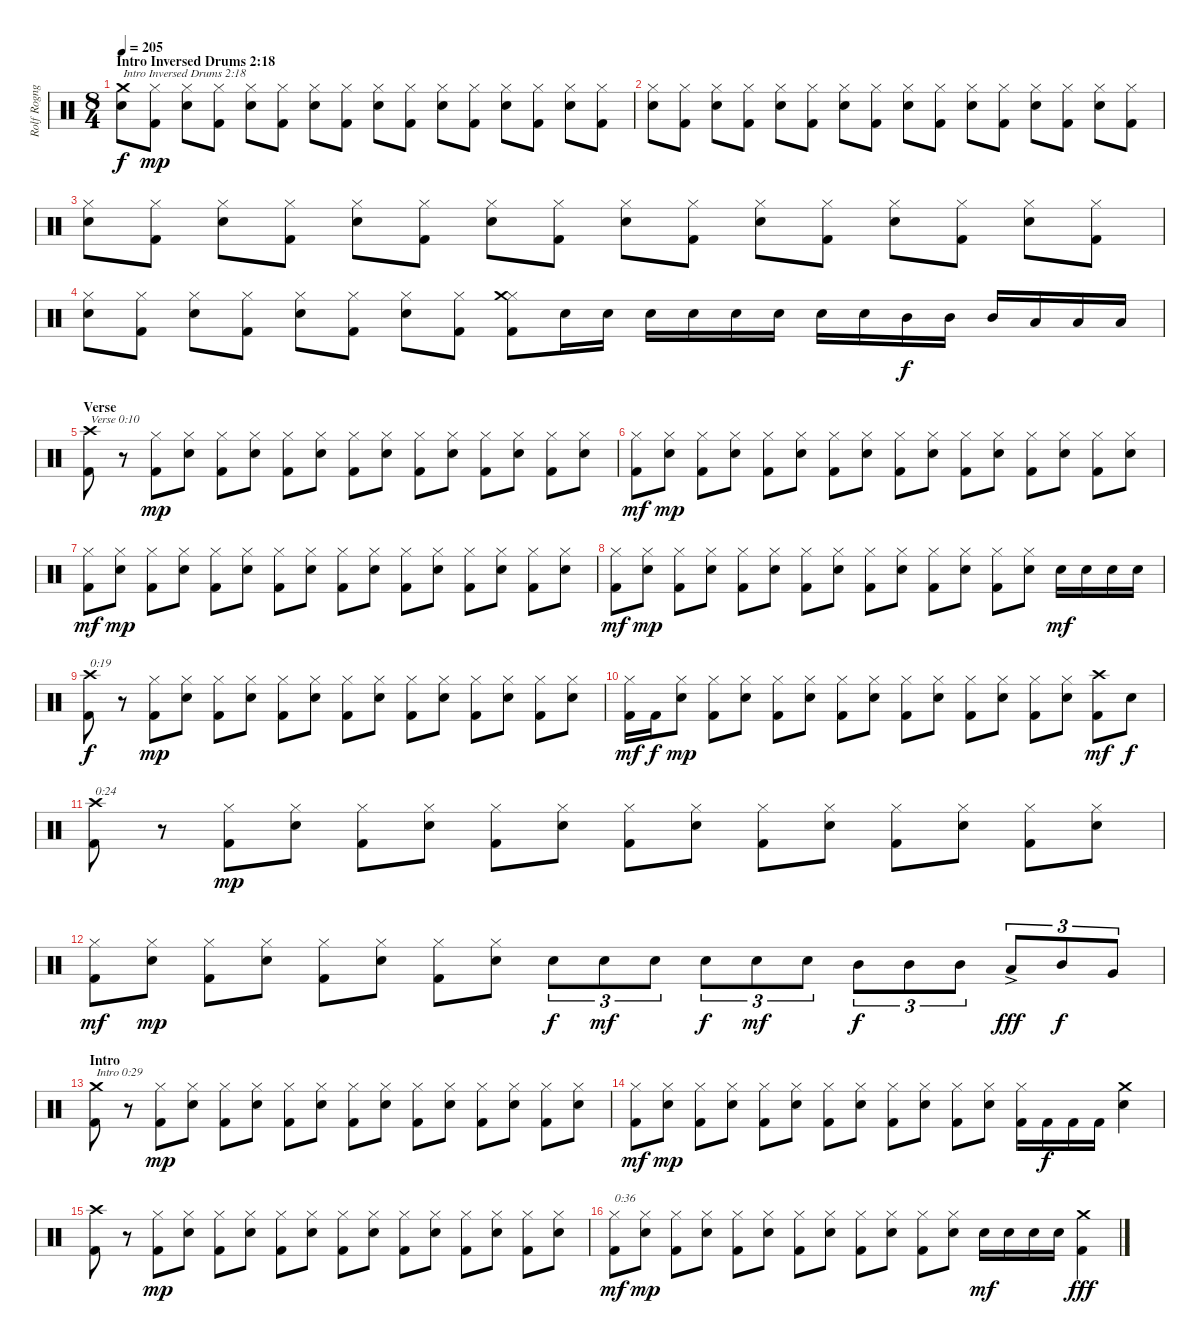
\track ("Rolf Rognguf Hansen" "Rolf Rogng") {instrument percussion}
\staff {score}
\articulation defaults
\ts (8 4)
\section ("" "Intro Inversed Drums 2:18")
\tempo 205
\clef neutral
\ks c
("Electric Snare (hit)" "Crash medium (hit)").8{txt "Intro Inversed Drums 2:18" dy f} ("Kick (hit) 2" "Hi-Hat (closed)").8{dy mp} ("Electric Snare (hit)" "Hi-Hat (closed)").8 ("Kick (hit) 2" "Hi-Hat (closed)").8 ("Electric Snare (hit)" "Hi-Hat (closed)").8 ("Kick (hit) 2" "Hi-Hat (closed)").8 ("Electric Snare (hit)" "Hi-Hat (closed)").8 ("Kick (hit) 2" "Hi-Hat (closed)").8 ("Electric Snare (hit)" "Hi-Hat (closed)").8 ("Kick (hit) 2" "Hi-Hat (closed)").8 ("Electric Snare (hit)" "Hi-Hat (closed)").8 ("Kick (hit) 2" "Hi-Hat (closed)").8 ("Electric Snare (hit)" "Hi-Hat (closed)").8 ("Kick (hit) 2" "Hi-Hat (closed)").8 ("Electric Snare (hit)" "Hi-Hat (closed)").8 ("Kick (hit) 2" "Hi-Hat (closed)").8 |
("Electric Snare (hit)" "Hi-Hat (closed)").8 ("Kick (hit) 2" "Hi-Hat (closed)").8 ("Electric Snare (hit)" "Hi-Hat (closed)").8 ("Kick (hit) 2" "Hi-Hat (closed)").8 ("Electric Snare (hit)" "Hi-Hat (closed)").8 ("Kick (hit) 2" "Hi-Hat (closed)").8 ("Electric Snare (hit)" "Hi-Hat (closed)").8 ("Kick (hit) 2" "Hi-Hat (closed)").8 ("Electric Snare (hit)" "Hi-Hat (closed)").8 ("Kick (hit) 2" "Hi-Hat (closed)").8 ("Electric Snare (hit)" "Hi-Hat (closed)").8 ("Kick (hit) 2" "Hi-Hat (closed)").8 ("Electric Snare (hit)" "Hi-Hat (closed)").8 ("Kick (hit) 2" "Hi-Hat (closed)").8 ("Electric Snare (hit)" "Hi-Hat (closed)").8 ("Kick (hit) 2" "Hi-Hat (closed)").8 |
("Electric Snare (hit)" "Hi-Hat (closed)").8 ("Kick (hit) 2" "Hi-Hat (closed)").8 ("Electric Snare (hit)" "Hi-Hat (closed)").8 ("Kick (hit) 2" "Hi-Hat (closed)").8 ("Electric Snare (hit)" "Hi-Hat (closed)").8 ("Kick (hit) 2" "Hi-Hat (closed)").8 ("Electric Snare (hit)" "Hi-Hat (closed)").8 ("Kick (hit) 2" "Hi-Hat (closed)").8 ("Electric Snare (hit)" "Hi-Hat (closed)").8 ("Kick (hit) 2" "Hi-Hat (closed)").8 ("Electric Snare (hit)" "Hi-Hat (closed)").8 ("Kick (hit) 2" "Hi-Hat (closed)").8 ("Electric Snare (hit)" "Hi-Hat (closed)").8 ("Kick (hit) 2" "Hi-Hat (closed)").8 ("Electric Snare (hit)" "Hi-Hat (closed)").8 ("Kick (hit) 2" "Hi-Hat (closed)").8 |
("Electric Snare (hit)" "Hi-Hat (closed)").8 ("Kick (hit) 2" "Hi-Hat (closed)").8 ("Electric Snare (hit)" "Hi-Hat (closed)").8 ("Kick (hit) 2" "Hi-Hat (closed)").8 ("Electric Snare (hit)" "Hi-Hat (closed)").8 ("Kick (hit) 2" "Hi-Hat (closed)").8 ("Electric Snare (hit)" "Hi-Hat (closed)").8 ("Kick (hit) 2" "Hi-Hat (closed)").8 ("Kick (hit) 2" "Hi-Hat (closed)" "Crash medium (hit)").8 "Electric Snare (hit)".16 "Electric Snare (hit)".16 "Electric Snare (hit)".16 "Electric Snare (hit)".16 "Electric Snare (hit)".16 "Electric Snare (hit)".16 "Electric Snare (hit)".16 "Electric Snare (hit)".16 "Mid Tom (hit)".16{dy f} "Mid Tom (hit)".16 "Mid Tom (hit)".16 "Low Tom (hit)".16 "Low Tom (hit)".16 "Low Tom (hit)".16 |
\section ("" "Verse")
("Kick (hit) 2" "Crash high (hit)").8{txt "Verse 0:10"} r.8 ("Kick (hit) 2" "Hi-Hat (closed)").8{dy mp} ("Electric Snare (hit)" "Hi-Hat (closed)").8 ("Kick (hit) 2" "Hi-Hat (closed)").8 ("Electric Snare (hit)" "Hi-Hat (closed)").8 ("Kick (hit) 2" "Hi-Hat (closed)").8 ("Electric Snare (hit)" "Hi-Hat (closed)").8 ("Kick (hit) 2" "Hi-Hat (closed)").8 ("Electric Snare (hit)" "Hi-Hat (closed)").8 ("Kick (hit) 2" "Hi-Hat (closed)").8 ("Electric Snare (hit)" "Hi-Hat (closed)").8 ("Kick (hit) 2" "Hi-Hat (closed)").8 ("Electric Snare (hit)" "Hi-Hat (closed)").8 ("Kick (hit) 2" "Hi-Hat (closed)").8 ("Electric Snare (hit)" "Hi-Hat (closed)").8 |
("Kick (hit) 2" "Hi-Hat (closed)").8{dy mf} ("Electric Snare (hit)" "Hi-Hat (closed)").8{dy mp} ("Kick (hit) 2" "Hi-Hat (closed)").8 ("Electric Snare (hit)" "Hi-Hat (closed)").8 ("Kick (hit) 2" "Hi-Hat (closed)").8 ("Electric Snare (hit)" "Hi-Hat (closed)").8 ("Kick (hit) 2" "Hi-Hat (closed)").8 ("Electric Snare (hit)" "Hi-Hat (closed)").8 ("Kick (hit) 2" "Hi-Hat (closed)").8 ("Electric Snare (hit)" "Hi-Hat (closed)").8 ("Kick (hit) 2" "Hi-Hat (closed)").8 ("Electric Snare (hit)" "Hi-Hat (closed)").8 ("Kick (hit) 2" "Hi-Hat (closed)").8 ("Electric Snare (hit)" "Hi-Hat (closed)").8 ("Kick (hit) 2" "Hi-Hat (closed)").8 ("Electric Snare (hit)" "Hi-Hat (closed)").8 |
("Kick (hit) 2" "Hi-Hat (closed)").8{dy mf} ("Electric Snare (hit)" "Hi-Hat (closed)").8{dy mp} ("Kick (hit) 2" "Hi-Hat (closed)").8 ("Electric Snare (hit)" "Hi-Hat (closed)").8 ("Kick (hit) 2" "Hi-Hat (closed)").8 ("Electric Snare (hit)" "Hi-Hat (closed)").8 ("Kick (hit) 2" "Hi-Hat (closed)").8 ("Electric Snare (hit)" "Hi-Hat (closed)").8 ("Kick (hit) 2" "Hi-Hat (closed)").8 ("Electric Snare (hit)" "Hi-Hat (closed)").8 ("Kick (hit) 2" "Hi-Hat (closed)").8 ("Electric Snare (hit)" "Hi-Hat (closed)").8 ("Kick (hit) 2" "Hi-Hat (closed)").8 ("Electric Snare (hit)" "Hi-Hat (closed)").8 ("Kick (hit) 2" "Hi-Hat (closed)").8 ("Electric Snare (hit)" "Hi-Hat (closed)").8 |
("Kick (hit) 2" "Hi-Hat (closed)").8{dy mf} ("Electric Snare (hit)" "Hi-Hat (closed)").8{dy mp} ("Kick (hit) 2" "Hi-Hat (closed)").8 ("Electric Snare (hit)" "Hi-Hat (closed)").8 ("Kick (hit) 2" "Hi-Hat (closed)").8 ("Electric Snare (hit)" "Hi-Hat (closed)").8 ("Kick (hit) 2" "Hi-Hat (closed)").8 ("Electric Snare (hit)" "Hi-Hat (closed)").8 ("Kick (hit) 2" "Hi-Hat (closed)").8 ("Electric Snare (hit)" "Hi-Hat (closed)").8 ("Kick (hit) 2" "Hi-Hat (closed)").8 ("Electric Snare (hit)" "Hi-Hat (closed)").8 ("Kick (hit) 2" "Hi-Hat (closed)").8 ("Electric Snare (hit)" "Hi-Hat (closed)").8 "Electric Snare (hit)".16{dy mf} "Electric Snare (hit)".16 "Electric Snare (hit)".16 "Electric Snare (hit)".16 |
("Kick (hit) 2" "Crash high (hit)").8{txt "0:19" dy f} r.8 ("Kick (hit) 2" "Hi-Hat (closed)").8{dy mp} ("Electric Snare (hit)" "Hi-Hat (closed)").8 ("Kick (hit) 2" "Hi-Hat (closed)").8 ("Electric Snare (hit)" "Hi-Hat (closed)").8 ("Kick (hit) 2" "Hi-Hat (closed)").8 ("Electric Snare (hit)" "Hi-Hat (closed)").8 ("Kick (hit) 2" "Hi-Hat (closed)").8 ("Electric Snare (hit)" "Hi-Hat (closed)").8 ("Kick (hit) 2" "Hi-Hat (closed)").8 ("Electric Snare (hit)" "Hi-Hat (closed)").8 ("Kick (hit) 2" "Hi-Hat (closed)").8 ("Electric Snare (hit)" "Hi-Hat (closed)").8 ("Kick (hit) 2" "Hi-Hat (closed)").8 ("Electric Snare (hit)" "Hi-Hat (closed)").8 |
("Kick (hit) 2" "Hi-Hat (closed)").16{dy mf} "Kick (hit) 2".16{dy f} ("Electric Snare (hit)" "Hi-Hat (closed)").8{dy mp} ("Kick (hit) 2" "Hi-Hat (closed)").8 ("Electric Snare (hit)" "Hi-Hat (closed)").8 ("Kick (hit) 2" "Hi-Hat (closed)").8 ("Electric Snare (hit)" "Hi-Hat (closed)").8 ("Kick (hit) 2" "Hi-Hat (closed)").8 ("Electric Snare (hit)" "Hi-Hat (closed)").8 ("Kick (hit) 2" "Hi-Hat (closed)").8 ("Electric Snare (hit)" "Hi-Hat (closed)").8 ("Kick (hit) 2" "Hi-Hat (closed)").8 ("Electric Snare (hit)" "Hi-Hat (closed)").8 ("Kick (hit) 2" "Hi-Hat (closed)").8 ("Electric Snare (hit)" "Hi-Hat (closed)").8 ("Kick (hit) 2" "Crash high (hit)").8{dy mf} "Electric Snare (hit)".8{dy f} |
("Kick (hit) 2" "Crash high (hit)").8{txt "0:24"} r.8 ("Kick (hit) 2" "Hi-Hat (closed)").8{dy mp} ("Electric Snare (hit)" "Hi-Hat (closed)").8 ("Kick (hit) 2" "Hi-Hat (closed)").8 ("Electric Snare (hit)" "Hi-Hat (closed)").8 ("Kick (hit) 2" "Hi-Hat (closed)").8 ("Electric Snare (hit)" "Hi-Hat (closed)").8 ("Kick (hit) 2" "Hi-Hat (closed)").8 ("Electric Snare (hit)" "Hi-Hat (closed)").8 ("Kick (hit) 2" "Hi-Hat (closed)").8 ("Electric Snare (hit)" "Hi-Hat (closed)").8 ("Kick (hit) 2" "Hi-Hat (closed)").8 ("Electric Snare (hit)" "Hi-Hat (closed)").8 ("Kick (hit) 2" "Hi-Hat (closed)").8 ("Electric Snare (hit)" "Hi-Hat (closed)").8 |
("Kick (hit) 2" "Hi-Hat (closed)").8{dy mf} ("Electric Snare (hit)" "Hi-Hat (closed)").8{dy mp} ("Kick (hit) 2" "Hi-Hat (closed)").8 ("Electric Snare (hit)" "Hi-Hat (closed)").8 ("Kick (hit) 2" "Hi-Hat (closed)").8 ("Electric Snare (hit)" "Hi-Hat (closed)").8 ("Kick (hit) 2" "Hi-Hat (closed)").8 ("Electric Snare (hit)" "Hi-Hat (closed)").8 "Electric Snare (hit)".8{tu (3 2) dy f} "Electric Snare (hit)".8{tu (3 2) dy mf} "Electric Snare (hit)".8{tu (3 2)} "Electric Snare (hit)".8{tu (3 2) dy f} "Electric Snare (hit)".8{tu (3 2) dy mf} "Electric Snare (hit)".8{tu (3 2)} "Mid Tom (hit)".8{tu (3 2) dy f} "Mid Tom (hit)".8{tu (3 2)} "Mid Tom (hit)".8{tu (3 2)} "Low Tom (hit)"{ac}.8{tu (3 2) dy fff} "Mid Tom (hit)".8{tu (3 2) dy f} "Very Low Tom (hit)".8{tu (3 2)} |
\section ("" "Intro")
("Kick (hit) 2" "Crash medium (hit)").8{txt "Intro 0:29"} r.8 ("Kick (hit) 2" "Hi-Hat (closed)").8{dy mp} ("Electric Snare (hit)" "Hi-Hat (closed)").8 ("Kick (hit) 2" "Hi-Hat (closed)").8 ("Electric Snare (hit)" "Hi-Hat (closed)").8 ("Kick (hit) 2" "Hi-Hat (closed)").8 ("Electric Snare (hit)" "Hi-Hat (closed)").8 ("Kick (hit) 2" "Hi-Hat (closed)").8 ("Electric Snare (hit)" "Hi-Hat (closed)").8 ("Kick (hit) 2" "Hi-Hat (closed)").8 ("Electric Snare (hit)" "Hi-Hat (closed)").8 ("Kick (hit) 2" "Hi-Hat (closed)").8 ("Electric Snare (hit)" "Hi-Hat (closed)").8 ("Kick (hit) 2" "Hi-Hat (closed)").8 ("Electric Snare (hit)" "Hi-Hat (closed)").8 |
("Kick (hit) 2" "Hi-Hat (closed)").8{dy mf} ("Electric Snare (hit)" "Hi-Hat (closed)").8{dy mp} ("Kick (hit) 2" "Hi-Hat (closed)").8 ("Electric Snare (hit)" "Hi-Hat (closed)").8 ("Kick (hit) 2" "Hi-Hat (closed)").8 ("Electric Snare (hit)" "Hi-Hat (closed)").8 ("Kick (hit) 2" "Hi-Hat (closed)").8 ("Electric Snare (hit)" "Hi-Hat (closed)").8 ("Kick (hit) 2" "Hi-Hat (closed)").8 ("Electric Snare (hit)" "Hi-Hat (closed)").8 ("Kick (hit) 2" "Hi-Hat (closed)").8 ("Electric Snare (hit)" "Hi-Hat (closed)").8 ("Kick (hit) 2" "Hi-Hat (closed)").16 "Kick (hit) 2".16{dy f} "Kick (hit) 2".16 "Kick (hit) 2".16 ("Electric Snare (hit)" "Crash medium (hit)").4 |
("Kick (hit) 2" "Crash high (hit)").8 r.8 ("Kick (hit) 2" "Hi-Hat (closed)").8{dy mp} ("Electric Snare (hit)" "Hi-Hat (closed)").8 ("Kick (hit) 2" "Hi-Hat (closed)").8 ("Electric Snare (hit)" "Hi-Hat (closed)").8 ("Kick (hit) 2" "Hi-Hat (closed)").8 ("Electric Snare (hit)" "Hi-Hat (closed)").8 ("Kick (hit) 2" "Hi-Hat (closed)").8 ("Electric Snare (hit)" "Hi-Hat (closed)").8 ("Kick (hit) 2" "Hi-Hat (closed)").8 ("Electric Snare (hit)" "Hi-Hat (closed)").8 ("Kick (hit) 2" "Hi-Hat (closed)").8 ("Electric Snare (hit)" "Hi-Hat (closed)").8 ("Kick (hit) 2" "Hi-Hat (closed)").8 ("Electric Snare (hit)" "Hi-Hat (closed)").8 |
("Kick (hit) 2" "Hi-Hat (closed)").8{txt "0:36" dy mf} ("Electric Snare (hit)" "Hi-Hat (closed)").8{dy mp} ("Kick (hit) 2" "Hi-Hat (closed)").8 ("Electric Snare (hit)" "Hi-Hat (closed)").8 ("Kick (hit) 2" "Hi-Hat (closed)").8 ("Electric Snare (hit)" "Hi-Hat (closed)").8 ("Kick (hit) 2" "Hi-Hat (closed)").8 ("Electric Snare (hit)" "Hi-Hat (closed)").8 ("Kick (hit) 2" "Hi-Hat (closed)").8 ("Electric Snare (hit)" "Hi-Hat (closed)").8 ("Kick (hit) 2" "Hi-Hat (closed)").8 ("Electric Snare (hit)" "Hi-Hat (closed)").8 "Electric Snare (hit)".16{dy mf} "Electric Snare (hit)".16 "Electric Snare (hit)".16 "Electric Snare (hit)".16 ("Kick (hit) 2" "Crash medium (hit)").4{dy fff}
